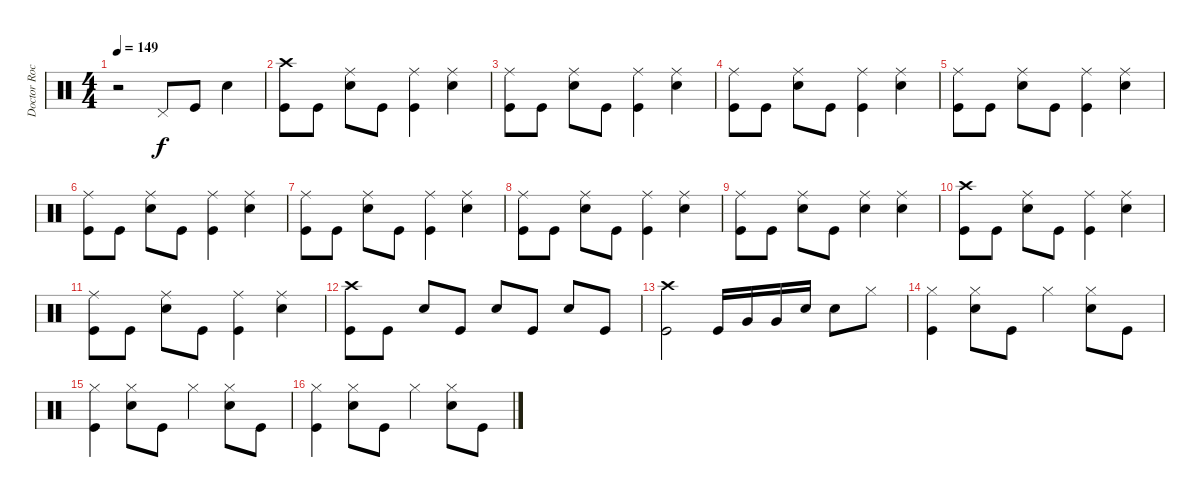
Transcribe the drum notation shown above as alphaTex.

\track ("Doctor Rock" "Doctor Roc") {instrument percussion}
\staff {score}
\articulation defaults
\ts (4 4)
\tempo 149
\clef neutral
\ks c
r.2{dy f} "Pedal Hi-Hat (hit)".8 "Kick (hit)".8 "Snare (hit) 2".4 |
("Crash high (hit)" "Kick (hit)").8 "Kick (hit)".8 ("Ride (middle)" "Snare (hit) 2").8 "Kick (hit)".8 ("Ride (middle)" "Kick (hit)").4 ("Ride (middle)" "Snare (hit) 2").4 |
("Ride (middle)" "Kick (hit)").8 "Kick (hit)".8 ("Ride (middle)" "Snare (hit) 2").8 "Kick (hit)".8 ("Ride (middle)" "Kick (hit)").4 ("Ride (middle)" "Snare (hit) 2").4 |
("Ride (middle)" "Kick (hit)").8 "Kick (hit)".8 ("Ride (middle)" "Snare (hit) 2").8 "Kick (hit)".8 ("Ride (middle)" "Kick (hit)").4 ("Ride (middle)" "Snare (hit) 2").4 |
("Ride (middle)" "Kick (hit)").8 "Kick (hit)".8 ("Ride (middle)" "Snare (hit) 2").8 "Kick (hit)".8 ("Ride (middle)" "Kick (hit)").4 ("Ride (middle)" "Snare (hit) 2").4 |
("Ride (middle)" "Kick (hit)").8 "Kick (hit)".8 ("Ride (middle)" "Snare (hit) 2").8 "Kick (hit)".8 ("Ride (middle)" "Kick (hit)").4 ("Ride (middle)" "Snare (hit) 2").4 |
("Ride (middle)" "Kick (hit)").8 "Kick (hit)".8 ("Ride (middle)" "Snare (hit) 2").8 "Kick (hit)".8 ("Ride (middle)" "Kick (hit)").4 ("Ride (middle)" "Snare (hit) 2").4 |
("Ride (middle)" "Kick (hit)").8 "Kick (hit)".8 ("Ride (middle)" "Snare (hit) 2").8 "Kick (hit)".8 ("Ride (middle)" "Kick (hit)").4 ("Ride (middle)" "Snare (hit) 2").4 |
("Ride (middle)" "Kick (hit)").8 "Kick (hit)".8 ("Ride (middle)" "Snare (hit) 2").8 "Kick (hit)".8 ("Ride (middle)" "Snare (hit) 2").4 ("Ride (middle)" "Snare (hit) 2").4 |
("Crash high (hit)" "Kick (hit)").8 "Kick (hit)".8 ("Ride (middle)" "Snare (hit) 2").8 "Kick (hit)".8 ("Ride (middle)" "Kick (hit)").4 ("Ride (middle)" "Snare (hit) 2").4 |
("Ride (middle)" "Kick (hit)").8 "Kick (hit)".8 ("Ride (middle)" "Snare (hit) 2").8 "Kick (hit)".8 ("Ride (middle)" "Kick (hit)").4 ("Ride (middle)" "Snare (hit) 2").4 |
("Crash high (hit)" "Kick (hit)").8 "Kick (hit)".8 "Snare (hit) 2".8 "Kick (hit)".8 "Snare (hit) 2".8 "Kick (hit)".8 "Snare (hit) 2".8 "Kick (hit)".8 |
("Crash high (hit)" "Kick (hit)").2 "Kick (hit)".16 "Very Low Tom (hit)".16 "Very Low Tom (hit)".16 "Snare (hit) 2".16 "Snare (hit) 2".8 "Hi-Hat (closed)".8 |
("Hi-Hat (closed)" "Kick (hit)").4 ("Hi-Hat (closed)" "Snare (hit) 2").8 "Kick (hit)".8 "Hi-Hat (closed)".4 ("Hi-Hat (closed)" "Snare (hit) 2").8 "Kick (hit)".8 |
("Hi-Hat (closed)" "Kick (hit)").4 ("Hi-Hat (closed)" "Snare (hit) 2").8 "Kick (hit)".8 "Hi-Hat (closed)".4 ("Hi-Hat (closed)" "Snare (hit) 2").8 "Kick (hit)".8 |
("Hi-Hat (closed)" "Kick (hit)").4 ("Hi-Hat (closed)" "Snare (hit) 2").8 "Kick (hit)".8 "Hi-Hat (closed)".4 ("Hi-Hat (closed)" "Snare (hit) 2").8 "Kick (hit)".8
